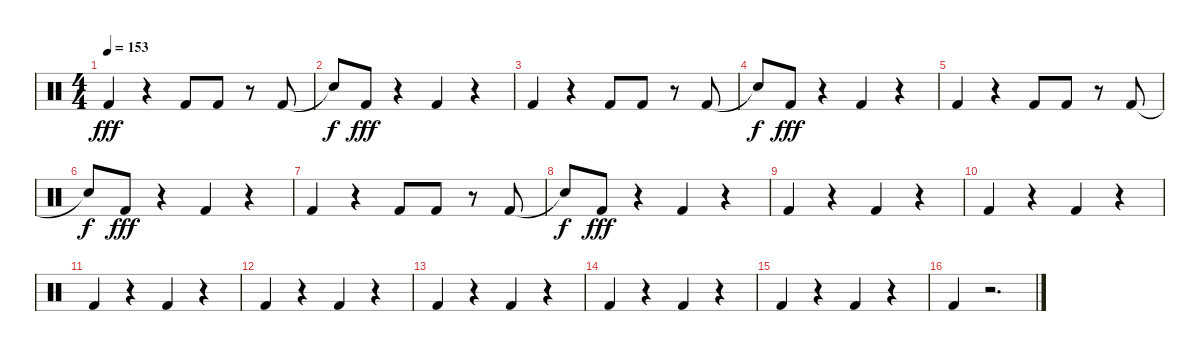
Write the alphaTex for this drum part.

\track "" {instrument percussion}
\staff {score}
\articulation defaults
\ts (4 4)
\tempo 153
\clef neutral
\ks c "Kick (hit) 2".4{dy fff}
r.4 "Kick (hit) 2".8 "Kick (hit) 2".8 r.8 "Kick (hit) 2".8 |
"Snare (hit)"{t}.8{dy f} "Kick (hit) 2".8{dy fff} r.4 "Kick (hit) 2".4 r.4 |
"Kick (hit) 2".4 r.4 "Kick (hit) 2".8 "Kick (hit) 2".8 r.8 "Kick (hit) 2".8 |
"Snare (hit)"{t}.8{dy f} "Kick (hit) 2".8{dy fff} r.4 "Kick (hit) 2".4 r.4 |
"Kick (hit) 2".4 r.4 "Kick (hit) 2".8 "Kick (hit) 2".8 r.8 "Kick (hit) 2".8 |
"Snare (hit)"{t}.8{dy f} "Kick (hit) 2".8{dy fff} r.4 "Kick (hit) 2".4 r.4 |
"Kick (hit) 2".4 r.4 "Kick (hit) 2".8 "Kick (hit) 2".8 r.8 "Kick (hit) 2".8 |
"Snare (hit)"{t}.8{dy f} "Kick (hit) 2".8{dy fff} r.4 "Kick (hit) 2".4 r.4 |
"Kick (hit) 2".4 r.4 "Kick (hit) 2".4 r.4 |
"Kick (hit) 2".4 r.4 "Kick (hit) 2".4 r.4 |
"Kick (hit) 2".4 r.4 "Kick (hit) 2".4 r.4 |
"Kick (hit) 2".4 r.4 "Kick (hit) 2".4 r.4 |
"Kick (hit) 2".4 r.4 "Kick (hit) 2".4 r.4 |
"Kick (hit) 2".4 r.4 "Kick (hit) 2".4 r.4 |
"Kick (hit) 2".4 r.4 "Kick (hit) 2".4 r.4 |
"Kick (hit) 2".4 r.2{d}
